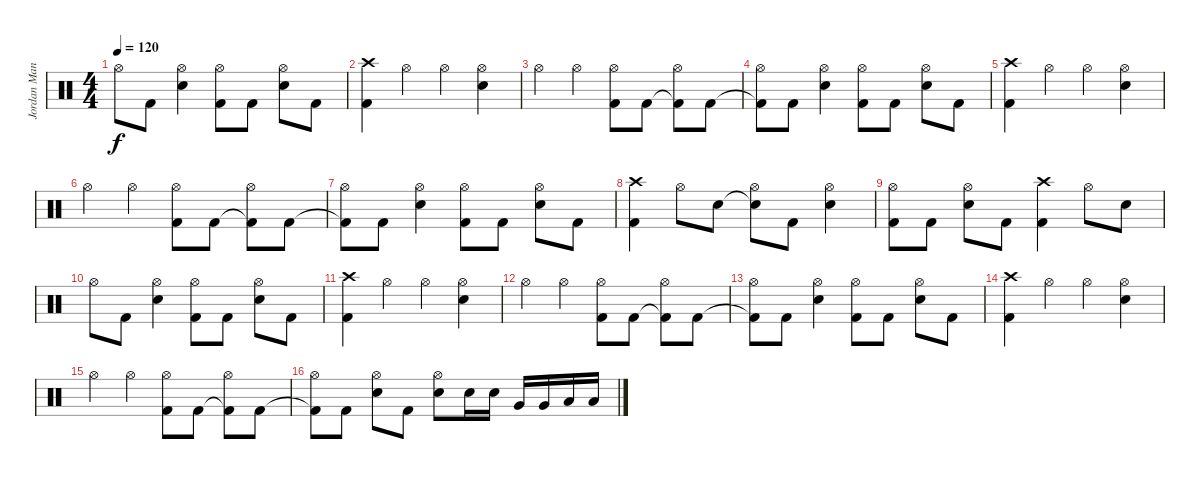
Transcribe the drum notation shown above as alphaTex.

\track ("Jordan Mancino - Drums" "Jordan Man") {instrument percussion}
\staff {score}
\articulation defaults
\ts (4 4)
\tempo 120
\clef neutral
\ks c "Hi-Hat (open)".8{dy f} "Kick (hit) 2".8
("Snare (hit) 2" "Hi-Hat (open)").4 ("Kick (hit) 2" "Hi-Hat (open)").8 "Kick (hit) 2".8 ("Snare (hit) 2" "Hi-Hat (open)").8 "Kick (hit) 2".8 |
("Kick (hit) 2" "Crash high (hit)").4 "Hi-Hat (open)".4 "Hi-Hat (open)".4 ("Snare (hit) 2" "Hi-Hat (open)").4 |
"Hi-Hat (open)".4 "Hi-Hat (open)".4 ("Kick (hit) 2" "Hi-Hat (open)").8 "Kick (hit) 2".8 ("Kick (hit) 2"{t} "Hi-Hat (open)").8 "Kick (hit) 2".8 |
("Kick (hit) 2"{t} "Hi-Hat (open)").8 "Kick (hit) 2".8 ("Snare (hit) 2" "Hi-Hat (open)").4 ("Kick (hit) 2" "Hi-Hat (open)").8 "Kick (hit) 2".8 ("Snare (hit) 2" "Hi-Hat (open)").8 "Kick (hit) 2".8 |
("Kick (hit) 2" "Crash high (hit)").4 "Hi-Hat (open)".4 "Hi-Hat (open)".4 ("Snare (hit) 2" "Hi-Hat (open)").4 |
"Hi-Hat (open)".4 "Hi-Hat (open)".4 ("Kick (hit) 2" "Hi-Hat (open)").8 "Kick (hit) 2".8 ("Kick (hit) 2"{t} "Hi-Hat (open)").8 "Kick (hit) 2".8 |
("Kick (hit) 2"{t} "Hi-Hat (open)").8 "Kick (hit) 2".8 ("Snare (hit) 2" "Hi-Hat (open)").4 ("Kick (hit) 2" "Hi-Hat (open)").8 "Kick (hit) 2".8 ("Snare (hit) 2" "Hi-Hat (open)").8 "Kick (hit) 2".8 |
("Kick (hit) 2" "Crash high (hit)").4 "Hi-Hat (open)".8 "Snare (hit) 2".8 ("Snare (hit) 2"{t} "Hi-Hat (open)").8 "Kick (hit) 2".8 ("Snare (hit) 2" "Hi-Hat (open)").4 |
("Kick (hit) 2" "Hi-Hat (open)").8 "Kick (hit) 2".8 ("Snare (hit) 2" "Hi-Hat (open)").8 "Kick (hit) 2".8 ("Kick (hit) 2" "Crash high (hit)").4 "Hi-Hat (open)".8 "Snare (hit) 2".8 |
"Hi-Hat (open)".8 "Kick (hit) 2".8 ("Snare (hit) 2" "Hi-Hat (open)").4 ("Kick (hit) 2" "Hi-Hat (open)").8 "Kick (hit) 2".8 ("Snare (hit) 2" "Hi-Hat (open)").8 "Kick (hit) 2".8 |
("Kick (hit) 2" "Crash high (hit)").4 "Hi-Hat (open)".4 "Hi-Hat (open)".4 ("Snare (hit) 2" "Hi-Hat (open)").4 |
"Hi-Hat (open)".4 "Hi-Hat (open)".4 ("Kick (hit) 2" "Hi-Hat (open)").8 "Kick (hit) 2".8 ("Kick (hit) 2"{t} "Hi-Hat (open)").8 "Kick (hit) 2".8 |
("Kick (hit) 2"{t} "Hi-Hat (open)").8 "Kick (hit) 2".8 ("Snare (hit) 2" "Hi-Hat (open)").4 ("Kick (hit) 2" "Hi-Hat (open)").8 "Kick (hit) 2".8 ("Snare (hit) 2" "Hi-Hat (open)").8 "Kick (hit) 2".8 |
("Kick (hit) 2" "Crash high (hit)").4 "Hi-Hat (open)".4 "Hi-Hat (open)".4 ("Snare (hit) 2" "Hi-Hat (open)").4 |
"Hi-Hat (open)".4 "Hi-Hat (open)".4 ("Kick (hit) 2" "Hi-Hat (open)").8 "Kick (hit) 2".8 ("Kick (hit) 2"{t} "Hi-Hat (open)").8 "Kick (hit) 2".8 |
("Kick (hit) 2"{t} "Hi-Hat (open)").8 "Kick (hit) 2".8 ("Snare (hit) 2" "Hi-Hat (open)").8 "Kick (hit) 2".8 ("Snare (hit) 2" "Hi-Hat (open)").8 "Snare (hit) 2".16 "Snare (hit) 2".16 "Very Low Tom (hit)".16 "Very Low Tom (hit)".16 "Low Floor Tom (hit)".16 "Low Floor Tom (hit)".16
